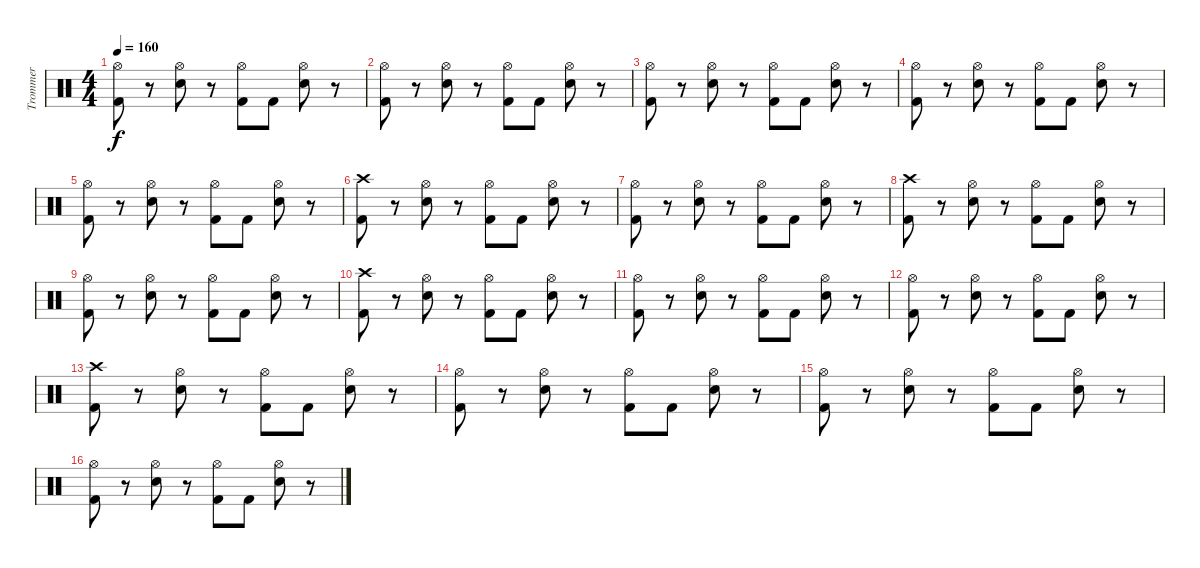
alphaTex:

\track ("Trommer" "Trommer") {instrument percussion}
\staff {score}
\articulation defaults
\ts (4 4)
\tempo 160
\clef neutral
\ks c
("Hi-Hat (open)" "Kick (hit) 2").8{dy f} r.8 ("Hi-Hat (open)" "Electric Snare (hit)").8 r.8 ("Hi-Hat (open)" "Kick (hit) 2").8 "Kick (hit) 2".8 ("Hi-Hat (open)" "Electric Snare (hit)").8 r.8 |
("Hi-Hat (open)" "Kick (hit) 2").8 r.8 ("Hi-Hat (open)" "Electric Snare (hit)").8 r.8 ("Hi-Hat (open)" "Kick (hit) 2").8 "Kick (hit) 2".8 ("Hi-Hat (open)" "Electric Snare (hit)").8 r.8 |
("Hi-Hat (open)" "Kick (hit) 2").8 r.8 ("Hi-Hat (open)" "Electric Snare (hit)").8 r.8 ("Hi-Hat (open)" "Kick (hit) 2").8 "Kick (hit) 2".8 ("Hi-Hat (open)" "Electric Snare (hit)").8 r.8 |
("Hi-Hat (open)" "Kick (hit) 2").8 r.8 ("Hi-Hat (open)" "Electric Snare (hit)").8 r.8 ("Hi-Hat (open)" "Kick (hit) 2").8 "Kick (hit) 2".8 ("Hi-Hat (open)" "Electric Snare (hit)").8 r.8 |
("Hi-Hat (open)" "Kick (hit) 2").8 r.8 ("Hi-Hat (open)" "Electric Snare (hit)").8 r.8 ("Hi-Hat (open)" "Kick (hit) 2").8 "Kick (hit) 2".8 ("Hi-Hat (open)" "Electric Snare (hit)").8 r.8 |
("Crash high (hit)" "Kick (hit) 2").8 r.8 ("Hi-Hat (open)" "Electric Snare (hit)").8 r.8 ("Hi-Hat (open)" "Kick (hit) 2").8 "Kick (hit) 2".8 ("Hi-Hat (open)" "Electric Snare (hit)").8 r.8 |
("Hi-Hat (open)" "Kick (hit) 2").8 r.8 ("Hi-Hat (open)" "Electric Snare (hit)").8 r.8 ("Hi-Hat (open)" "Kick (hit) 2").8 "Kick (hit) 2".8 ("Hi-Hat (open)" "Electric Snare (hit)").8 r.8 |
("Crash high (hit)" "Kick (hit) 2").8 r.8 ("Hi-Hat (open)" "Electric Snare (hit)").8 r.8 ("Hi-Hat (open)" "Kick (hit) 2").8 "Kick (hit) 2".8 ("Hi-Hat (open)" "Electric Snare (hit)").8 r.8 |
("Hi-Hat (open)" "Kick (hit) 2").8 r.8 ("Hi-Hat (open)" "Electric Snare (hit)").8 r.8 ("Hi-Hat (open)" "Kick (hit) 2").8 "Kick (hit) 2".8 ("Hi-Hat (open)" "Electric Snare (hit)").8 r.8 |
("Crash high (hit)" "Kick (hit) 2").8 r.8 ("Hi-Hat (open)" "Electric Snare (hit)").8 r.8 ("Hi-Hat (open)" "Kick (hit) 2").8 "Kick (hit) 2".8 ("Hi-Hat (open)" "Electric Snare (hit)").8 r.8 |
("Hi-Hat (open)" "Kick (hit) 2").8 r.8 ("Hi-Hat (open)" "Electric Snare (hit)").8 r.8 ("Hi-Hat (open)" "Kick (hit) 2").8 "Kick (hit) 2".8 ("Hi-Hat (open)" "Electric Snare (hit)").8 r.8 |
("Hi-Hat (open)" "Kick (hit) 2").8 r.8 ("Hi-Hat (open)" "Electric Snare (hit)").8 r.8 ("Hi-Hat (open)" "Kick (hit) 2").8 "Kick (hit) 2".8 ("Hi-Hat (open)" "Electric Snare (hit)").8 r.8 |
("Crash high (hit)" "Kick (hit) 2").8 r.8 ("Hi-Hat (open)" "Electric Snare (hit)").8 r.8 ("Hi-Hat (open)" "Kick (hit) 2").8 "Kick (hit) 2".8 ("Hi-Hat (open)" "Electric Snare (hit)").8 r.8 |
("Hi-Hat (open)" "Kick (hit) 2").8 r.8 ("Hi-Hat (open)" "Electric Snare (hit)").8 r.8 ("Hi-Hat (open)" "Kick (hit) 2").8 "Kick (hit) 2".8 ("Hi-Hat (open)" "Electric Snare (hit)").8 r.8 |
("Hi-Hat (open)" "Kick (hit) 2").8 r.8 ("Hi-Hat (open)" "Electric Snare (hit)").8 r.8 ("Hi-Hat (open)" "Kick (hit) 2").8 "Kick (hit) 2".8 ("Hi-Hat (open)" "Electric Snare (hit)").8 r.8 |
("Hi-Hat (open)" "Kick (hit) 2").8 r.8 ("Hi-Hat (open)" "Electric Snare (hit)").8 r.8 ("Hi-Hat (open)" "Kick (hit) 2").8 "Kick (hit) 2".8 ("Hi-Hat (open)" "Electric Snare (hit)").8 r.8
